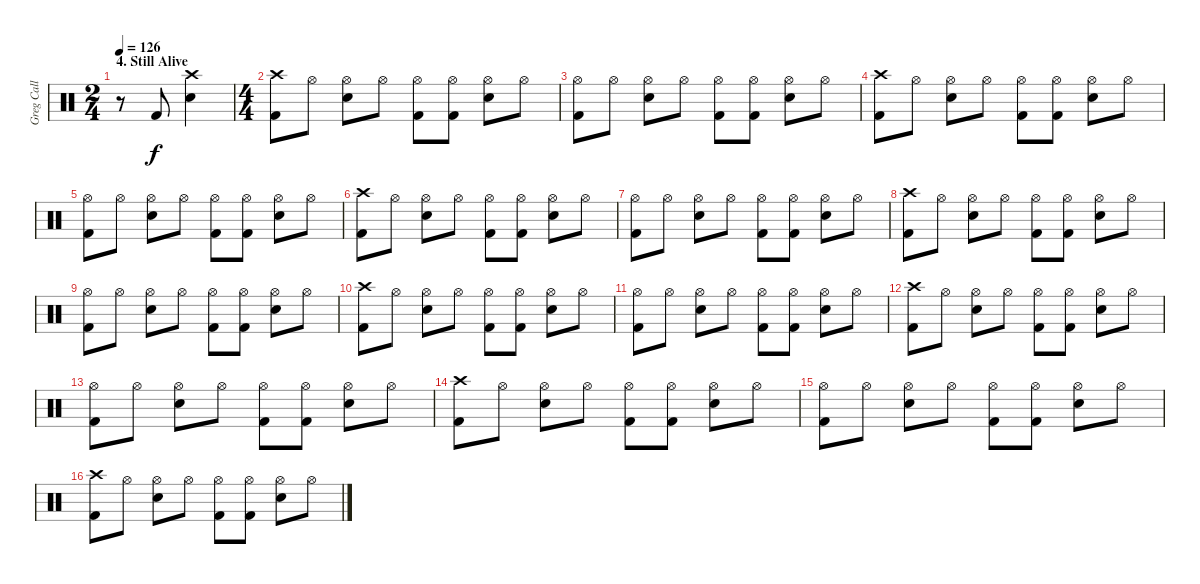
\track ("Greg Call (Drums)" "Greg Call ") {instrument percussion}
\staff {score}
\articulation defaults
\ts (2 4)
\section ("" "4. Still Alive")
\tempo 126
\clef neutral
\ks c
r.8{dy f volume 14} "Kick (hit) 2".8 ("Crash high (hit)" "Snare (hit) 2").4 |
\ts (4 4)
("Crash high (hit)" "Kick (hit) 2").8 "Hi-Hat (open)".8 ("Hi-Hat (open)" "Snare (hit) 2").8 "Hi-Hat (open)".8 ("Hi-Hat (open)" "Kick (hit) 2").8 ("Hi-Hat (open)" "Kick (hit) 2").8 ("Hi-Hat (open)" "Snare (hit) 2").8 "Hi-Hat (open)".8 |
("Hi-Hat (open)" "Kick (hit) 2").8 "Hi-Hat (open)".8 ("Hi-Hat (open)" "Snare (hit) 2").8 "Hi-Hat (open)".8 ("Hi-Hat (open)" "Kick (hit) 2").8 ("Hi-Hat (open)" "Kick (hit) 2").8 ("Hi-Hat (open)" "Snare (hit) 2").8 "Hi-Hat (open)".8 |
("Crash high (hit)" "Kick (hit) 2").8 "Hi-Hat (open)".8 ("Hi-Hat (open)" "Snare (hit) 2").8 "Hi-Hat (open)".8 ("Hi-Hat (open)" "Kick (hit) 2").8 ("Hi-Hat (open)" "Kick (hit) 2").8 ("Hi-Hat (open)" "Snare (hit) 2").8 "Hi-Hat (open)".8 |
("Hi-Hat (open)" "Kick (hit) 2").8 "Hi-Hat (open)".8 ("Hi-Hat (open)" "Snare (hit) 2").8 "Hi-Hat (open)".8 ("Hi-Hat (open)" "Kick (hit) 2").8 ("Hi-Hat (open)" "Kick (hit) 2").8 ("Hi-Hat (open)" "Snare (hit) 2").8 "Hi-Hat (open)".8 |
("Crash high (hit)" "Kick (hit) 2").8 "Hi-Hat (open)".8 ("Hi-Hat (open)" "Snare (hit) 2").8 "Hi-Hat (open)".8 ("Hi-Hat (open)" "Kick (hit) 2").8 ("Hi-Hat (open)" "Kick (hit) 2").8 ("Hi-Hat (open)" "Snare (hit) 2").8 "Hi-Hat (open)".8 |
("Hi-Hat (open)" "Kick (hit) 2").8 "Hi-Hat (open)".8 ("Hi-Hat (open)" "Snare (hit) 2").8 "Hi-Hat (open)".8 ("Hi-Hat (open)" "Kick (hit) 2").8 ("Hi-Hat (open)" "Kick (hit) 2").8 ("Hi-Hat (open)" "Snare (hit) 2").8 "Hi-Hat (open)".8 |
("Crash high (hit)" "Kick (hit) 2").8 "Hi-Hat (open)".8 ("Hi-Hat (open)" "Snare (hit) 2").8 "Hi-Hat (open)".8 ("Hi-Hat (open)" "Kick (hit) 2").8 ("Hi-Hat (open)" "Kick (hit) 2").8 ("Hi-Hat (open)" "Snare (hit) 2").8 "Hi-Hat (open)".8 |
("Hi-Hat (open)" "Kick (hit) 2").8 "Hi-Hat (open)".8 ("Hi-Hat (open)" "Snare (hit) 2").8 "Hi-Hat (open)".8 ("Hi-Hat (open)" "Kick (hit) 2").8 ("Hi-Hat (open)" "Kick (hit) 2").8 ("Hi-Hat (open)" "Snare (hit) 2").8 "Hi-Hat (open)".8 |
("Crash high (hit)" "Kick (hit) 2").8 "Hi-Hat (open)".8 ("Hi-Hat (open)" "Snare (hit) 2").8 "Hi-Hat (open)".8 ("Hi-Hat (open)" "Kick (hit) 2").8 ("Hi-Hat (open)" "Kick (hit) 2").8 ("Hi-Hat (open)" "Snare (hit) 2").8 "Hi-Hat (open)".8 |
("Hi-Hat (open)" "Kick (hit) 2").8 "Hi-Hat (open)".8 ("Hi-Hat (open)" "Snare (hit) 2").8 "Hi-Hat (open)".8 ("Hi-Hat (open)" "Kick (hit) 2").8 ("Hi-Hat (open)" "Kick (hit) 2").8 ("Hi-Hat (open)" "Snare (hit) 2").8 "Hi-Hat (open)".8 |
("Crash high (hit)" "Kick (hit) 2").8 "Hi-Hat (open)".8 ("Hi-Hat (open)" "Snare (hit) 2").8 "Hi-Hat (open)".8 ("Hi-Hat (open)" "Kick (hit) 2").8 ("Hi-Hat (open)" "Kick (hit) 2").8 ("Hi-Hat (open)" "Snare (hit) 2").8 "Hi-Hat (open)".8 |
("Hi-Hat (open)" "Kick (hit) 2").8 "Hi-Hat (open)".8 ("Hi-Hat (open)" "Snare (hit) 2").8 "Hi-Hat (open)".8 ("Hi-Hat (open)" "Kick (hit) 2").8 ("Hi-Hat (open)" "Kick (hit) 2").8 ("Hi-Hat (open)" "Snare (hit) 2").8 "Hi-Hat (open)".8 |
("Crash high (hit)" "Kick (hit) 2").8 "Hi-Hat (open)".8 ("Hi-Hat (open)" "Snare (hit) 2").8 "Hi-Hat (open)".8 ("Hi-Hat (open)" "Kick (hit) 2").8 ("Hi-Hat (open)" "Kick (hit) 2").8 ("Hi-Hat (open)" "Snare (hit) 2").8 "Hi-Hat (open)".8 |
("Hi-Hat (open)" "Kick (hit) 2").8 "Hi-Hat (open)".8 ("Hi-Hat (open)" "Snare (hit) 2").8 "Hi-Hat (open)".8 ("Hi-Hat (open)" "Kick (hit) 2").8 ("Hi-Hat (open)" "Kick (hit) 2").8 ("Hi-Hat (open)" "Snare (hit) 2").8 "Hi-Hat (open)".8 |
("Crash high (hit)" "Kick (hit) 2").8 "Hi-Hat (open)".8 ("Hi-Hat (open)" "Snare (hit) 2").8 "Hi-Hat (open)".8 ("Hi-Hat (open)" "Kick (hit) 2").8 ("Hi-Hat (open)" "Kick (hit) 2").8 ("Hi-Hat (open)" "Snare (hit) 2").8 "Hi-Hat (open)".8
